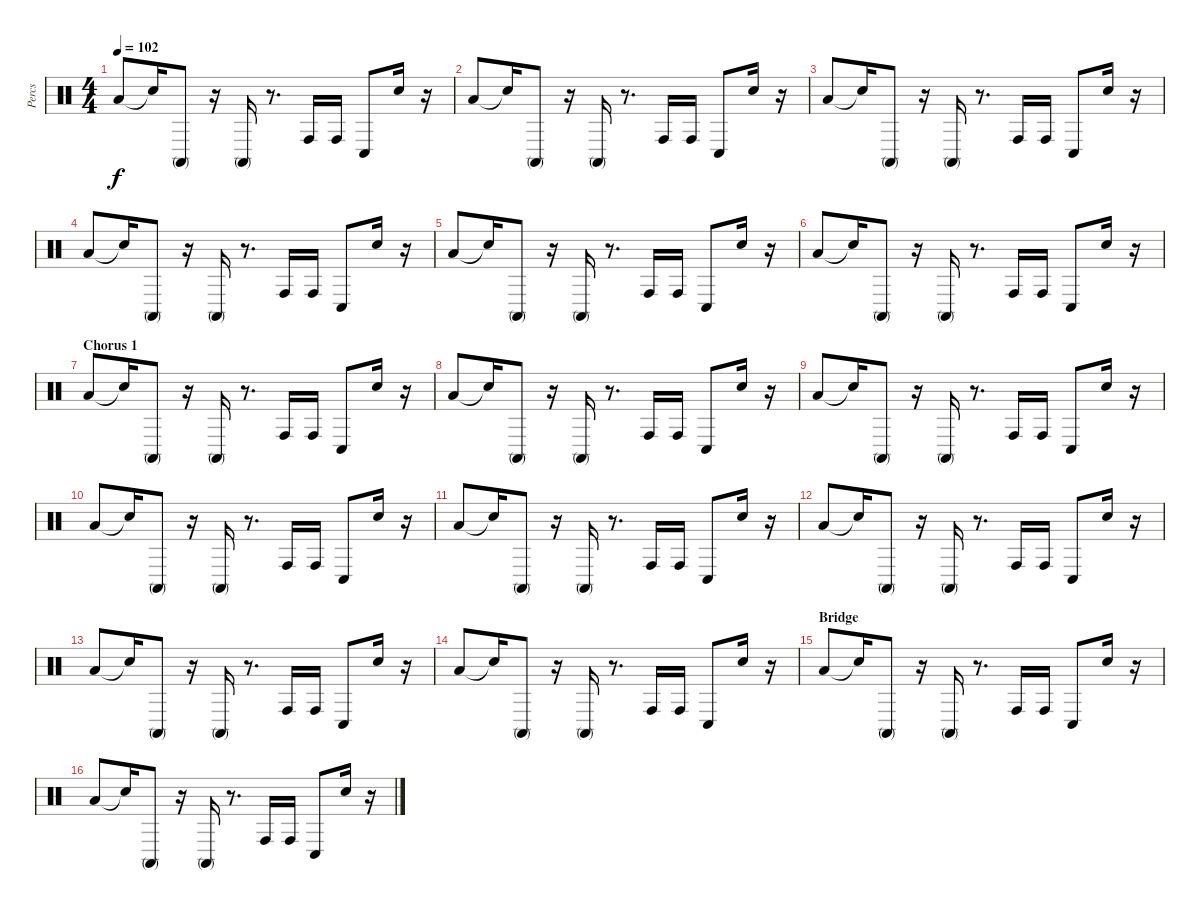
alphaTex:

\track ("Percs" "Percs") {instrument percussion}
\staff {score}
\articulation defaults
\ts (4 4)
\tempo 102
\clef neutral
\ks c "Low Floor Tom (hit)".8{dy f} "Snare (hit)"{t}.16 "Conga high (mute)".8
r.16 "Conga high (mute)".16 r.8{d} "Conga high (hit)".16 "Conga high (hit)".16 "Conga low (hit)".8 "Hand Clap (hit)".16 r.16 |
"Low Floor Tom (hit)".8 "Snare (hit)"{t}.16 "Conga high (mute)".8 r.16 "Conga high (mute)".16 r.8{d} "Conga high (hit)".16 "Conga high (hit)".16 "Conga low (hit)".8 "Hand Clap (hit)".16 r.16 |
"Low Floor Tom (hit)".8 "Snare (hit)"{t}.16 "Conga high (mute)".8 r.16 "Conga high (mute)".16 r.8{d} "Conga high (hit)".16 "Conga high (hit)".16 "Conga low (hit)".8 "Hand Clap (hit)".16 r.16 |
"Low Floor Tom (hit)".8 "Snare (hit)"{t}.16 "Conga high (mute)".8 r.16 "Conga high (mute)".16 r.8{d} "Conga high (hit)".16 "Conga high (hit)".16 "Conga low (hit)".8 "Hand Clap (hit)".16 r.16 |
"Low Floor Tom (hit)".8 "Snare (hit)"{t}.16 "Conga high (mute)".8 r.16 "Conga high (mute)".16 r.8{d} "Conga high (hit)".16 "Conga high (hit)".16 "Conga low (hit)".8 "Hand Clap (hit)".16 r.16 |
"Low Floor Tom (hit)".8 "Snare (hit)"{t}.16 "Conga high (mute)".8 r.16 "Conga high (mute)".16 r.8{d} "Conga high (hit)".16 "Conga high (hit)".16 "Conga low (hit)".8 "Hand Clap (hit)".16 r.16 |
\section ("" "Chorus 1")
"Low Floor Tom (hit)".8 "Snare (hit)"{t}.16 "Conga high (mute)".8 r.16 "Conga high (mute)".16 r.8{d} "Conga high (hit)".16 "Conga high (hit)".16 "Conga low (hit)".8 "Hand Clap (hit)".16 r.16 |
"Low Floor Tom (hit)".8 "Snare (hit)"{t}.16 "Conga high (mute)".8 r.16 "Conga high (mute)".16 r.8{d} "Conga high (hit)".16 "Conga high (hit)".16 "Conga low (hit)".8 "Hand Clap (hit)".16 r.16 |
"Low Floor Tom (hit)".8 "Snare (hit)"{t}.16 "Conga high (mute)".8 r.16 "Conga high (mute)".16 r.8{d} "Conga high (hit)".16 "Conga high (hit)".16 "Conga low (hit)".8 "Hand Clap (hit)".16 r.16 |
"Low Floor Tom (hit)".8 "Snare (hit)"{t}.16 "Conga high (mute)".8 r.16 "Conga high (mute)".16 r.8{d} "Conga high (hit)".16 "Conga high (hit)".16 "Conga low (hit)".8 "Hand Clap (hit)".16 r.16 |
"Low Floor Tom (hit)".8 "Snare (hit)"{t}.16 "Conga high (mute)".8 r.16 "Conga high (mute)".16 r.8{d} "Conga high (hit)".16 "Conga high (hit)".16 "Conga low (hit)".8 "Hand Clap (hit)".16 r.16 |
"Low Floor Tom (hit)".8 "Snare (hit)"{t}.16 "Conga high (mute)".8 r.16 "Conga high (mute)".16 r.8{d} "Conga high (hit)".16 "Conga high (hit)".16 "Conga low (hit)".8 "Hand Clap (hit)".16 r.16 |
"Low Floor Tom (hit)".8 "Snare (hit)"{t}.16 "Conga high (mute)".8 r.16 "Conga high (mute)".16 r.8{d} "Conga high (hit)".16 "Conga high (hit)".16 "Conga low (hit)".8 "Hand Clap (hit)".16 r.16 |
"Low Floor Tom (hit)".8 "Snare (hit)"{t}.16 "Conga high (mute)".8 r.16 "Conga high (mute)".16 r.8{d} "Conga high (hit)".16 "Conga high (hit)".16 "Conga low (hit)".8 "Hand Clap (hit)".16 r.16 |
\section ("" "Bridge")
"Low Floor Tom (hit)".8 "Snare (hit)"{t}.16 "Conga high (mute)".8 r.16 "Conga high (mute)".16 r.8{d} "Conga high (hit)".16 "Conga high (hit)".16 "Conga low (hit)".8 "Hand Clap (hit)".16 r.16 |
"Low Floor Tom (hit)".8 "Snare (hit)"{t}.16 "Conga high (mute)".8 r.16 "Conga high (mute)".16 r.8{d} "Conga high (hit)".16 "Conga high (hit)".16 "Conga low (hit)".8 "Hand Clap (hit)".16 r.16
